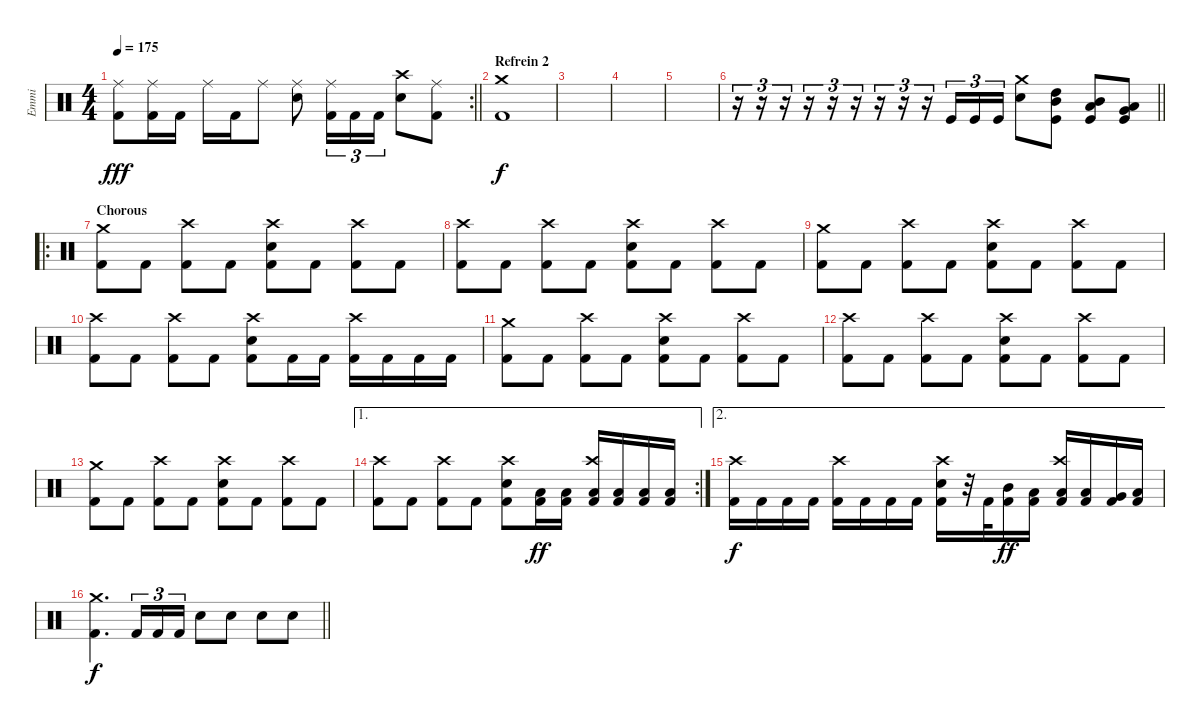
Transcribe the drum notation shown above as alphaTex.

\track ("Emmi" "Emmi") {instrument percussion}
\staff {score}
\articulation defaults
\rc 2
\ts (4 4)
\tempo 175
\clef neutral
\barLineRight lightlight
\ks c
("Ride (middle)" "Kick (hit) 2").8{dy fff} ("Ride (middle)" "Kick (hit) 2").16 "Kick (hit) 2".16 "Ride (middle)".16 "Kick (hit) 2".16 "Ride (middle)".8 ("Ride (middle)" "Electric Snare (hit)").8 ("Ride (middle)" "Kick (hit) 2").16{tu (3 2)} "Kick (hit) 2".16{tu (3 2)} "Kick (hit) 2".16{tu (3 2)} ("Crash high (hit)" "Electric Snare (hit)").8 ("Ride (middle)" "Kick (hit) 2").8 |
\section ("" "Refrein 2")
("Crash medium (hit)" "Kick (hit) 2").1{dy f} |
|
|
|
\barLineRight lightlight
r.16{tu (3 2)} r.16{tu (3 2)} r.16{tu (3 2)} r.16{tu (3 2)} r.16{tu (3 2)} r.16{tu (3 2)} r.16{tu (3 2)} r.16{tu (3 2)} r.16{tu (3 2)} "Kick (hit)".16{tu (3 2)} "Kick (hit)".16{tu (3 2)} "Kick (hit)".16{tu (3 2)} ("Crash medium (hit)" "Electric Snare (hit)").8 ("High Tom (hit)" "Mid Tom (hit)" "Kick (hit)").8 ("Mid Tom (hit)" "Low Tom (hit)" "Kick (hit)").8 ("Low Tom (hit)" "Very Low Tom (hit)" "Kick (hit)").8 |
\ro
\section ("" "Chorous")
("Crash medium (hit)" "Kick (hit) 2").8 "Kick (hit) 2".8 ("Crash high (hit)" "Kick (hit) 2").8 "Kick (hit) 2".8 ("Crash high (hit)" "Electric Snare (hit)" "Kick (hit) 2").8 "Kick (hit) 2".8 ("Crash high (hit)" "Kick (hit) 2").8 "Kick (hit) 2".8 |
("Crash high (hit)" "Kick (hit) 2").8 "Kick (hit) 2".8 ("Crash high (hit)" "Kick (hit) 2").8 "Kick (hit) 2".8 ("Crash high (hit)" "Electric Snare (hit)" "Kick (hit) 2").8 "Kick (hit) 2".8 ("Crash high (hit)" "Kick (hit) 2").8 "Kick (hit) 2".8 |
("Crash medium (hit)" "Kick (hit) 2").8 "Kick (hit) 2".8 ("Crash high (hit)" "Kick (hit) 2").8 "Kick (hit) 2".8 ("Crash high (hit)" "Electric Snare (hit)" "Kick (hit) 2").8 "Kick (hit) 2".8 ("Crash high (hit)" "Kick (hit) 2").8 "Kick (hit) 2".8 |
("Crash high (hit)" "Kick (hit) 2").8 "Kick (hit) 2".8 ("Crash high (hit)" "Kick (hit) 2").8 "Kick (hit) 2".8 ("Crash high (hit)" "Electric Snare (hit)" "Kick (hit) 2").8 "Kick (hit) 2".16 "Kick (hit) 2".16 ("Crash high (hit)" "Kick (hit) 2").16 "Kick (hit) 2".16 "Kick (hit) 2".16 "Kick (hit) 2".16 |
("Crash medium (hit)" "Kick (hit) 2").8 "Kick (hit) 2".8 ("Crash high (hit)" "Kick (hit) 2").8 "Kick (hit) 2".8 ("Crash high (hit)" "Electric Snare (hit)" "Kick (hit) 2").8 "Kick (hit) 2".8 ("Crash high (hit)" "Kick (hit) 2").8 "Kick (hit) 2".8 |
("Crash high (hit)" "Kick (hit) 2").8 "Kick (hit) 2".8 ("Crash high (hit)" "Kick (hit) 2").8 "Kick (hit) 2".8 ("Crash high (hit)" "Electric Snare (hit)" "Kick (hit) 2").8 "Kick (hit) 2".8 ("Crash high (hit)" "Kick (hit) 2").8 "Kick (hit) 2".8 |
("Crash medium (hit)" "Kick (hit) 2").8 "Kick (hit) 2".8 ("Crash high (hit)" "Kick (hit) 2").8 "Kick (hit) 2".8 ("Crash high (hit)" "Electric Snare (hit)" "Kick (hit) 2").8 "Kick (hit) 2".8 ("Crash high (hit)" "Kick (hit) 2").8 "Kick (hit) 2".8 |
\ae 1
\rc 2
("Crash high (hit)" "Kick (hit) 2").8 "Kick (hit) 2".8 ("Crash high (hit)" "Kick (hit) 2").8 "Kick (hit) 2".8 ("Crash high (hit)" "Electric Snare (hit)" "Kick (hit) 2").8 ("Low Floor Tom (hit)" "Kick (hit) 2").16{dy ff} ("Low Floor Tom (hit)" "Kick (hit) 2").16 ("Crash high (hit)" "Low Floor Tom (hit)" "Kick (hit) 2").16 ("Low Floor Tom (hit)" "Kick (hit) 2").16 ("Low Floor Tom (hit)" "Kick (hit) 2").16 ("Low Floor Tom (hit)" "Kick (hit) 2").16 |
\ae 2
("Crash high (hit)" "Kick (hit) 2").16{dy f} "Kick (hit) 2".16 "Kick (hit) 2".16 "Kick (hit) 2".16 ("Crash high (hit)" "Kick (hit) 2").16 "Kick (hit) 2".16 "Kick (hit) 2".16 "Kick (hit) 2".16 ("Electric Snare (hit)" "Crash high (hit)" "Kick (hit) 2").16 r.32 "Kick (hit) 2".32 ("Mid Tom (hit)" "Kick (hit) 2").16{dy ff} ("Low Floor Tom (hit)" "Kick (hit) 2").16 ("Crash high (hit)" "Low Tom (hit)" "Kick (hit) 2").16 ("Low Floor Tom (hit)" "Kick (hit) 2").16 ("Very Low Tom (hit)" "Kick (hit) 2").16 ("Low Floor Tom (hit)" "Kick (hit) 2").16 |
\barLineRight lightlight
("Crash medium (hit)" "Kick (hit) 2").4{d dy f} "Kick (hit) 2".16{tu (3 2)} "Kick (hit) 2".16{tu (3 2)} "Kick (hit) 2".16{tu (3 2)} "Electric Snare (hit)".8 "Electric Snare (hit)".8 "Electric Snare (hit)".8 "Electric Snare (hit)".8
